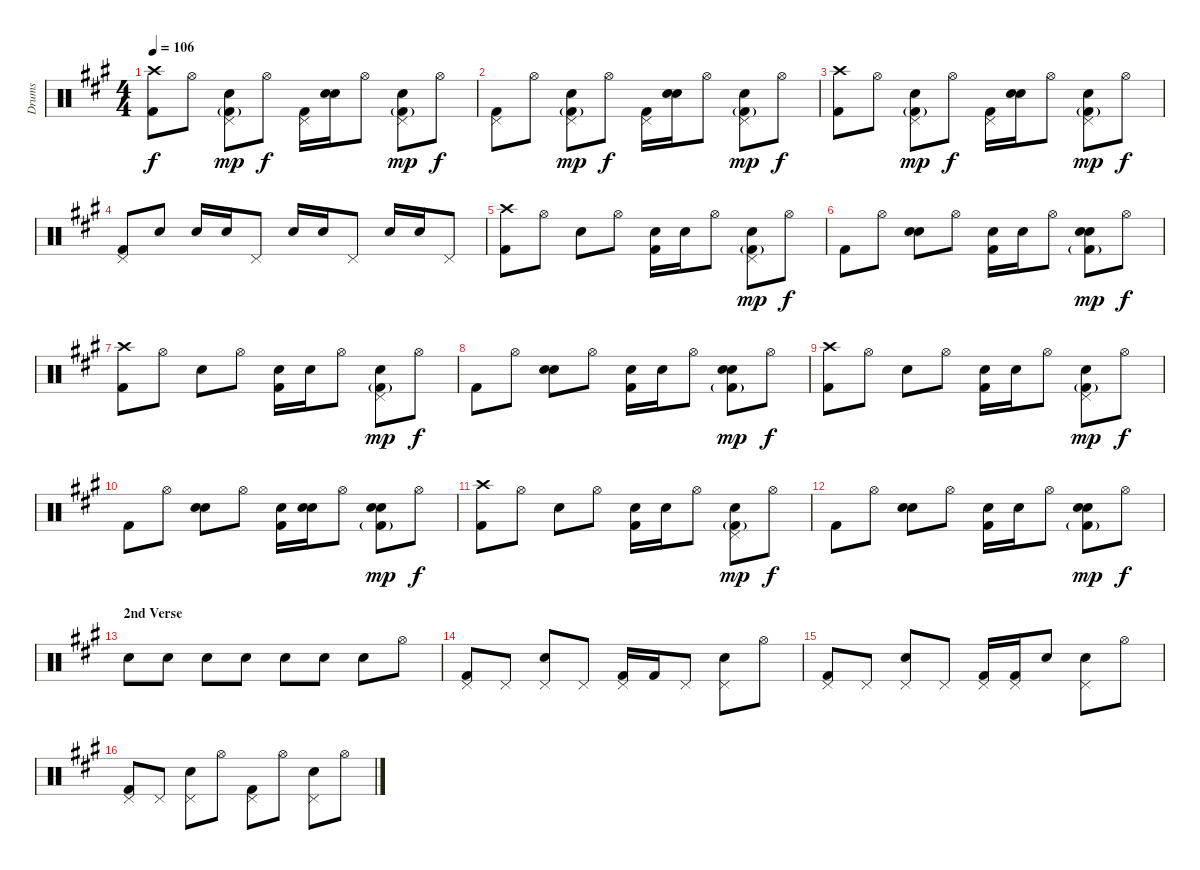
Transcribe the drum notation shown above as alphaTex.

\track ("Drums" "Drums") {instrument percussion}
\staff {score}
\articulation defaults
\ts (4 4)
\tempo 106
\clef neutral
\ks a
("Crash high (hit)" "Kick (hit) 2").8{dy f} "Hi-Hat (open)".8 ("Pedal Hi-Hat (hit)" "Electric Snare (hit)" "Kick (hit) 2"{g}).8{dy mp} "Hi-Hat (open)".8{dy f} ("Pedal Hi-Hat (hit)" "Kick (hit) 2").16 ("Snare (hit)"{x} "Electric Snare (hit)").16 "Hi-Hat (open)".8 ("Pedal Hi-Hat (hit)" "Electric Snare (hit)" "Kick (hit) 2"{g}).8{dy mp} "Hi-Hat (open)".8{dy f} |
("Pedal Hi-Hat (hit)" "Kick (hit) 2").8 "Hi-Hat (open)".8 ("Pedal Hi-Hat (hit)" "Electric Snare (hit)" "Kick (hit) 2"{g}).8{dy mp} "Hi-Hat (open)".8{dy f} ("Pedal Hi-Hat (hit)" "Kick (hit) 2").16 ("Snare (hit)"{x} "Electric Snare (hit)").16 "Hi-Hat (open)".8 ("Pedal Hi-Hat (hit)" "Electric Snare (hit)" "Kick (hit) 2"{g}).8{dy mp} "Hi-Hat (open)".8{dy f} |
("Crash high (hit)" "Kick (hit) 2").8 "Hi-Hat (open)".8 ("Pedal Hi-Hat (hit)" "Electric Snare (hit)" "Kick (hit) 2"{g}).8{dy mp} "Hi-Hat (open)".8{dy f} ("Pedal Hi-Hat (hit)" "Kick (hit) 2").16 ("Snare (hit)"{x} "Electric Snare (hit)").16 "Hi-Hat (open)".8 ("Pedal Hi-Hat (hit)" "Electric Snare (hit)" "Kick (hit) 2"{g}).8{dy mp} "Hi-Hat (open)".8{dy f} |
("Pedal Hi-Hat (hit)" "Kick (hit) 2").8 "Electric Snare (hit)".8 "Electric Snare (hit)".16 "Electric Snare (hit)".16 "Pedal Hi-Hat (hit)".8 "Electric Snare (hit)".16 "Electric Snare (hit)".16 "Pedal Hi-Hat (hit)".8 "Electric Snare (hit)".16 "Electric Snare (hit)".16 "Pedal Hi-Hat (hit)".8 |
("Crash high (hit)" "Kick (hit) 2").8 "Hi-Hat (open)".8 "Electric Snare (hit)".8 "Hi-Hat (open)".8 ("Snare (hit)"{x} "Kick (hit) 2").16 "Electric Snare (hit)".16 "Hi-Hat (open)".8 ("Pedal Hi-Hat (hit)"{x} "Electric Snare (hit)" "Kick (hit) 2"{g}).8{dy mp} "Hi-Hat (open)".8{dy f} |
"Kick (hit) 2".8 "Hi-Hat (open)".8 ("Snare (hit)"{x} "Electric Snare (hit)").8 "Hi-Hat (open)".8 ("Snare (hit)"{x} "Kick (hit) 2").16 "Electric Snare (hit)".16 "Hi-Hat (open)".8 ("Snare (hit)"{x} "Electric Snare (hit)" "Kick (hit) 2"{g}).8{dy mp} "Hi-Hat (open)".8{dy f} |
("Crash high (hit)" "Kick (hit) 2").8 "Hi-Hat (open)".8 "Electric Snare (hit)".8 "Hi-Hat (open)".8 ("Snare (hit)"{x} "Kick (hit) 2").16 "Electric Snare (hit)".16 "Hi-Hat (open)".8 ("Pedal Hi-Hat (hit)"{x} "Electric Snare (hit)" "Kick (hit) 2"{g}).8{dy mp} "Hi-Hat (open)".8{dy f} |
"Kick (hit) 2".8 "Hi-Hat (open)".8 ("Snare (hit)"{x} "Electric Snare (hit)").8 "Hi-Hat (open)".8 ("Snare (hit)"{x} "Kick (hit) 2").16 "Electric Snare (hit)".16 "Hi-Hat (open)".8 ("Snare (hit)"{x} "Electric Snare (hit)" "Kick (hit) 2"{g}).8{dy mp} "Hi-Hat (open)".8{dy f} |
("Crash high (hit)" "Kick (hit) 2").8 "Hi-Hat (open)".8 "Electric Snare (hit)".8 "Hi-Hat (open)".8 ("Snare (hit)"{x} "Kick (hit) 2").16 "Electric Snare (hit)".16 "Hi-Hat (open)".8 ("Pedal Hi-Hat (hit)"{x} "Electric Snare (hit)" "Kick (hit) 2"{g}).8{dy mp} "Hi-Hat (open)".8{dy f} |
"Kick (hit) 2".8 "Hi-Hat (open)".8 ("Snare (hit)"{x} "Electric Snare (hit)").8 "Hi-Hat (open)".8 ("Snare (hit)"{x} "Kick (hit) 2").16 ("Snare (hit)" "Electric Snare (hit)").16 "Hi-Hat (open)".8 ("Snare (hit)"{x} "Electric Snare (hit)" "Kick (hit) 2"{g}).8{dy mp} "Hi-Hat (open)".8{dy f} |
("Crash high (hit)" "Kick (hit) 2").8 "Hi-Hat (open)".8 "Electric Snare (hit)".8 "Hi-Hat (open)".8 ("Snare (hit)"{x} "Kick (hit) 2").16 "Electric Snare (hit)".16 "Hi-Hat (open)".8 ("Pedal Hi-Hat (hit)"{x} "Electric Snare (hit)" "Kick (hit) 2"{g}).8{dy mp} "Hi-Hat (open)".8{dy f} |
"Kick (hit) 2".8 "Hi-Hat (open)".8 ("Snare (hit)"{x} "Electric Snare (hit)").8 "Hi-Hat (open)".8 ("Snare (hit)"{x} "Kick (hit) 2").16 "Electric Snare (hit)".16 "Hi-Hat (open)".8 ("Snare (hit)"{x} "Electric Snare (hit)" "Kick (hit) 2"{g}).8{dy mp} "Hi-Hat (open)".8{dy f} |
\section ("" "2nd Verse")
"Snare (hit)"{x}.8 "Snare (hit)"{x}.8 "Snare (hit)"{x}.8 "Snare (hit)"{x}.8 "Snare (hit)"{x}.8 "Snare (hit)"{x}.8 "Snare (hit)"{x}.8 "Hi-Hat (open)".8 |
("Pedal Hi-Hat (hit)" "Kick (hit) 2").8 "Pedal Hi-Hat (hit)".8 ("Pedal Hi-Hat (hit)" "Electric Snare (hit)").8 "Pedal Hi-Hat (hit)".8 ("Pedal Hi-Hat (hit)" "Kick (hit) 2").16 "Kick (hit) 2".16 "Pedal Hi-Hat (hit)"{x}.8 ("Pedal Hi-Hat (hit)" "Electric Snare (hit)").8 "Hi-Hat (open)".8 |
("Pedal Hi-Hat (hit)" "Kick (hit) 2").8 "Pedal Hi-Hat (hit)".8 ("Pedal Hi-Hat (hit)" "Electric Snare (hit)").8 "Pedal Hi-Hat (hit)".8 ("Pedal Hi-Hat (hit)" "Kick (hit) 2").16 ("Pedal Hi-Hat (hit)" "Kick (hit) 2").16 "Snare (hit)"{x}.8 ("Pedal Hi-Hat (hit)" "Electric Snare (hit)").8 "Hi-Hat (open)".8 |
("Pedal Hi-Hat (hit)" "Kick (hit) 2").8 "Pedal Hi-Hat (hit)".8 ("Pedal Hi-Hat (hit)" "Electric Snare (hit)").8 "Hi-Hat (open)".8 ("Pedal Hi-Hat (hit)" "Kick (hit) 2").8 "Hi-Hat (open)".8 ("Pedal Hi-Hat (hit)" "Electric Snare (hit)").8 "Hi-Hat (open)".8
